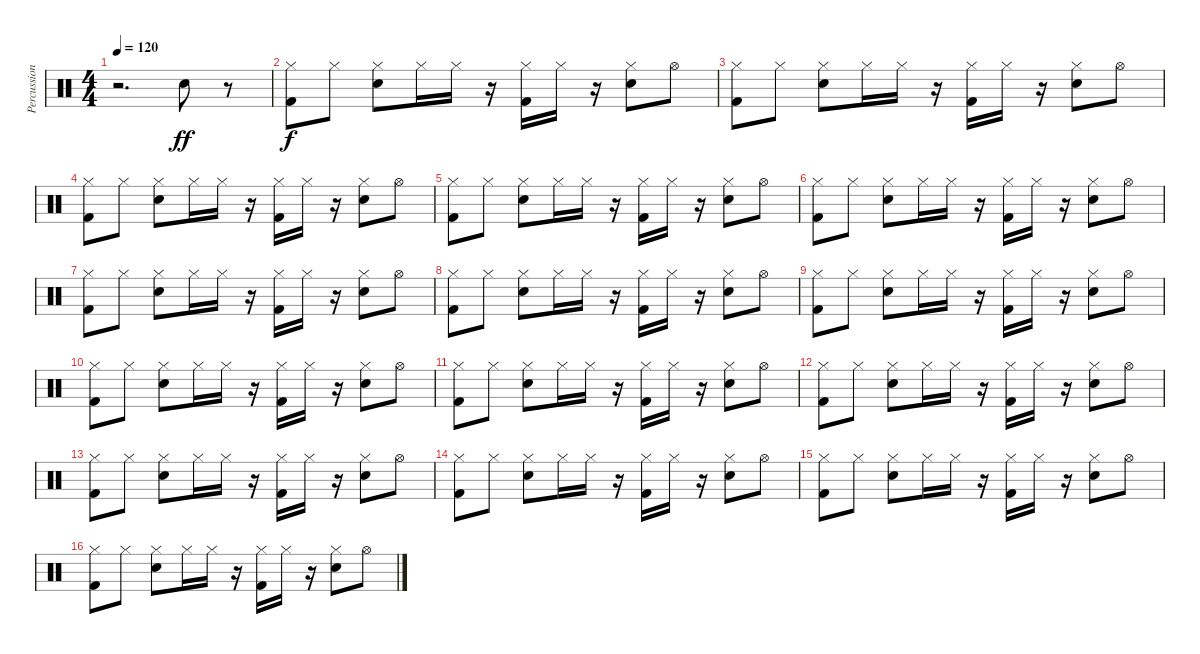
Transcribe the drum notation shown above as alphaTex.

\track ("Percussions" "Percussion") {instrument percussion}
\staff {score}
\articulation defaults
\ts (4 4)
\tempo 120
\clef neutral
\ks c
r.2{d dy ff} "Snare (hit) 2".8 r.8 |
("Hi-Hat (closed)" "Kick (hit) 2").8{dy f} "Hi-Hat (closed)".8 ("Hi-Hat (closed)" "Snare (hit) 2").8 "Hi-Hat (closed)".16 "Hi-Hat (closed)".16 r.16 ("Hi-Hat (closed)" "Kick (hit) 2").16 "Hi-Hat (closed)".16 r.16 ("Hi-Hat (closed)" "Snare (hit) 2").8 "Hi-Hat (open)".8 |
("Hi-Hat (closed)" "Kick (hit) 2").8 "Hi-Hat (closed)".8 ("Hi-Hat (closed)" "Snare (hit) 2").8 "Hi-Hat (closed)".16 "Hi-Hat (closed)".16 r.16 ("Hi-Hat (closed)" "Kick (hit) 2").16 "Hi-Hat (closed)".16 r.16 ("Hi-Hat (closed)" "Snare (hit) 2").8 "Hi-Hat (open)".8 |
("Hi-Hat (closed)" "Kick (hit) 2").8 "Hi-Hat (closed)".8 ("Hi-Hat (closed)" "Snare (hit) 2").8 "Hi-Hat (closed)".16 "Hi-Hat (closed)".16 r.16 ("Hi-Hat (closed)" "Kick (hit) 2").16 "Hi-Hat (closed)".16 r.16 ("Hi-Hat (closed)" "Snare (hit) 2").8 "Hi-Hat (open)".8 |
("Hi-Hat (closed)" "Kick (hit) 2").8 "Hi-Hat (closed)".8 ("Hi-Hat (closed)" "Snare (hit) 2").8 "Hi-Hat (closed)".16 "Hi-Hat (closed)".16 r.16 ("Hi-Hat (closed)" "Kick (hit) 2").16 "Hi-Hat (closed)".16 r.16 ("Hi-Hat (closed)" "Snare (hit) 2").8 "Hi-Hat (open)".8 |
("Hi-Hat (closed)" "Kick (hit) 2").8 "Hi-Hat (closed)".8 ("Hi-Hat (closed)" "Snare (hit) 2").8 "Hi-Hat (closed)".16 "Hi-Hat (closed)".16 r.16 ("Hi-Hat (closed)" "Kick (hit) 2").16 "Hi-Hat (closed)".16 r.16 ("Hi-Hat (closed)" "Snare (hit) 2").8 "Hi-Hat (open)".8 |
("Hi-Hat (closed)" "Kick (hit) 2").8 "Hi-Hat (closed)".8 ("Hi-Hat (closed)" "Snare (hit) 2").8 "Hi-Hat (closed)".16 "Hi-Hat (closed)".16 r.16 ("Hi-Hat (closed)" "Kick (hit) 2").16 "Hi-Hat (closed)".16 r.16 ("Hi-Hat (closed)" "Snare (hit) 2").8 "Hi-Hat (open)".8 |
("Hi-Hat (closed)" "Kick (hit) 2").8 "Hi-Hat (closed)".8 ("Hi-Hat (closed)" "Snare (hit) 2").8 "Hi-Hat (closed)".16 "Hi-Hat (closed)".16 r.16 ("Hi-Hat (closed)" "Kick (hit) 2").16 "Hi-Hat (closed)".16 r.16 ("Hi-Hat (closed)" "Snare (hit) 2").8 "Hi-Hat (open)".8 |
("Hi-Hat (closed)" "Kick (hit) 2").8 "Hi-Hat (closed)".8 ("Hi-Hat (closed)" "Snare (hit) 2").8 "Hi-Hat (closed)".16 "Hi-Hat (closed)".16 r.16 ("Hi-Hat (closed)" "Kick (hit) 2").16 "Hi-Hat (closed)".16 r.16 ("Hi-Hat (closed)" "Snare (hit) 2").8 "Hi-Hat (open)".8 |
("Hi-Hat (closed)" "Kick (hit) 2").8 "Hi-Hat (closed)".8 ("Hi-Hat (closed)" "Snare (hit) 2").8 "Hi-Hat (closed)".16 "Hi-Hat (closed)".16 r.16 ("Hi-Hat (closed)" "Kick (hit) 2").16 "Hi-Hat (closed)".16 r.16 ("Hi-Hat (closed)" "Snare (hit) 2").8 "Hi-Hat (open)".8 |
("Hi-Hat (closed)" "Kick (hit) 2").8 "Hi-Hat (closed)".8 ("Hi-Hat (closed)" "Snare (hit) 2").8 "Hi-Hat (closed)".16 "Hi-Hat (closed)".16 r.16 ("Hi-Hat (closed)" "Kick (hit) 2").16 "Hi-Hat (closed)".16 r.16 ("Hi-Hat (closed)" "Snare (hit) 2").8 "Hi-Hat (open)".8 |
("Hi-Hat (closed)" "Kick (hit) 2").8 "Hi-Hat (closed)".8 ("Hi-Hat (closed)" "Snare (hit) 2").8 "Hi-Hat (closed)".16 "Hi-Hat (closed)".16 r.16 ("Hi-Hat (closed)" "Kick (hit) 2").16 "Hi-Hat (closed)".16 r.16 ("Hi-Hat (closed)" "Snare (hit) 2").8 "Hi-Hat (open)".8 |
("Hi-Hat (closed)" "Kick (hit) 2").8 "Hi-Hat (closed)".8 ("Hi-Hat (closed)" "Snare (hit) 2").8 "Hi-Hat (closed)".16 "Hi-Hat (closed)".16 r.16 ("Hi-Hat (closed)" "Kick (hit) 2").16 "Hi-Hat (closed)".16 r.16 ("Hi-Hat (closed)" "Snare (hit) 2").8 "Hi-Hat (open)".8 |
("Hi-Hat (closed)" "Kick (hit) 2").8 "Hi-Hat (closed)".8 ("Hi-Hat (closed)" "Snare (hit) 2").8 "Hi-Hat (closed)".16 "Hi-Hat (closed)".16 r.16 ("Hi-Hat (closed)" "Kick (hit) 2").16 "Hi-Hat (closed)".16 r.16 ("Hi-Hat (closed)" "Snare (hit) 2").8 "Hi-Hat (open)".8 |
("Hi-Hat (closed)" "Kick (hit) 2").8 "Hi-Hat (closed)".8 ("Hi-Hat (closed)" "Snare (hit) 2").8 "Hi-Hat (closed)".16 "Hi-Hat (closed)".16 r.16 ("Hi-Hat (closed)" "Kick (hit) 2").16 "Hi-Hat (closed)".16 r.16 ("Hi-Hat (closed)" "Snare (hit) 2").8 "Hi-Hat (open)".8 |
("Hi-Hat (closed)" "Kick (hit) 2").8 "Hi-Hat (closed)".8 ("Hi-Hat (closed)" "Snare (hit) 2").8 "Hi-Hat (closed)".16 "Hi-Hat (closed)".16 r.16 ("Hi-Hat (closed)" "Kick (hit) 2").16 "Hi-Hat (closed)".16 r.16 ("Hi-Hat (closed)" "Snare (hit) 2").8 "Hi-Hat (open)".8
